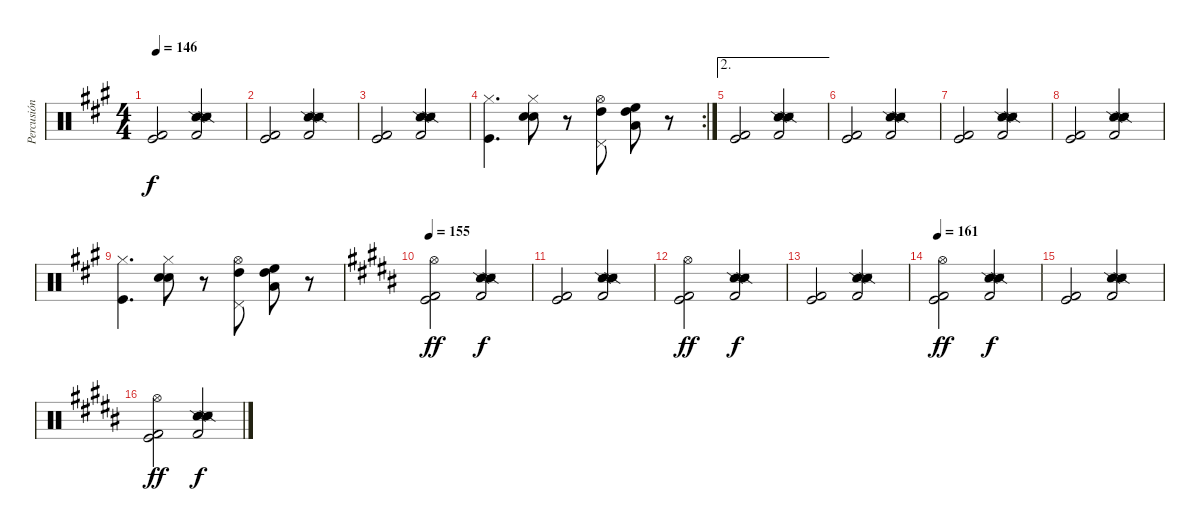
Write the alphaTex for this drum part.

\track ("Percusión" "Percusión") {instrument percussion}
\staff {score}
\articulation defaults
\ts (4 4)
\tempo 146
\clef neutral
\ks a
("Kick (hit) 2" "Kick (hit)").2{dy f} ("Snare (side stick) 2" "Metronome (hit)" "Kick (hit) 2" "Snare (side stick) 2").2 |
("Kick (hit) 2" "Kick (hit)").2 ("Snare (side stick) 2" "Metronome (hit)" "Kick (hit) 2" "Snare (side stick) 2").2 |
("Kick (hit) 2" "Kick (hit)").2 ("Snare (side stick) 2" "Metronome (hit)" "Kick (hit) 2" "Snare (side stick) 2").2 |
\rc 2
("Hi-Hat (closed)" "Kick (hit)").4{d} ("Hi-Hat (closed)" "Electric Snare (hit)" "Snare (hit) 2").8 r.8 ("Hi-Hat (open)" "Pedal Hi-Hat (hit)" "High Tom (hit)").8 ("High Floor Tom (hit)" "High Tom (hit)" "Low Tom (hit)").8 r.8 |
\ae 2
("Kick (hit) 2" "Kick (hit)").2 ("Snare (side stick) 2" "Metronome (hit)" "Kick (hit) 2" "Snare (side stick) 2").2 |
("Kick (hit) 2" "Kick (hit)").2 ("Snare (side stick) 2" "Metronome (hit)" "Kick (hit) 2" "Snare (side stick) 2").2 |
("Kick (hit) 2" "Kick (hit)").2 ("Snare (side stick) 2" "Metronome (hit)" "Kick (hit) 2" "Snare (side stick) 2").2 |
("Kick (hit) 2" "Kick (hit)").2 ("Snare (side stick) 2" "Metronome (hit)" "Kick (hit) 2" "Snare (side stick) 2").2 |
("Hi-Hat (closed)" "Kick (hit)").4{d} ("Hi-Hat (closed)" "Electric Snare (hit)" "Snare (hit) 2").8 r.8 ("Hi-Hat (open)" "Pedal Hi-Hat (hit)" "High Tom (hit)").8 ("High Floor Tom (hit)" "High Tom (hit)" "Low Tom (hit)").8 r.8 |
\tempo 155
\ks b
("Kick (hit) 2" "Hi-Hat (open)" "Kick (hit)").2{dy ff volume 7 balance 3} ("Snare (side stick) 2" "Metronome (hit)" "Kick (hit) 2" "Snare (side stick) 2").2{dy f} |
("Kick (hit) 2" "Kick (hit)").2 ("Snare (side stick) 2" "Metronome (hit)" "Kick (hit) 2" "Snare (side stick) 2").2 |
("Kick (hit) 2" "Hi-Hat (open)" "Kick (hit)").2{dy ff} ("Snare (side stick) 2" "Metronome (hit)" "Kick (hit) 2" "Snare (side stick) 2").2{dy f} |
("Kick (hit) 2" "Kick (hit)").2 ("Snare (side stick) 2" "Metronome (hit)" "Kick (hit) 2" "Snare (side stick) 2").2 |
\tempo 161
("Kick (hit) 2" "Hi-Hat (open)" "Kick (hit)").2{dy ff volume 7 balance 3} ("Snare (side stick) 2" "Metronome (hit)" "Kick (hit) 2" "Snare (side stick) 2").2{dy f} |
("Kick (hit) 2" "Kick (hit)").2 ("Snare (side stick) 2" "Metronome (hit)" "Kick (hit) 2" "Snare (side stick) 2").2 |
("Kick (hit) 2" "Hi-Hat (open)" "Kick (hit)").2{dy ff} ("Snare (side stick) 2" "Metronome (hit)" "Kick (hit) 2" "Snare (side stick) 2").2{dy f}
